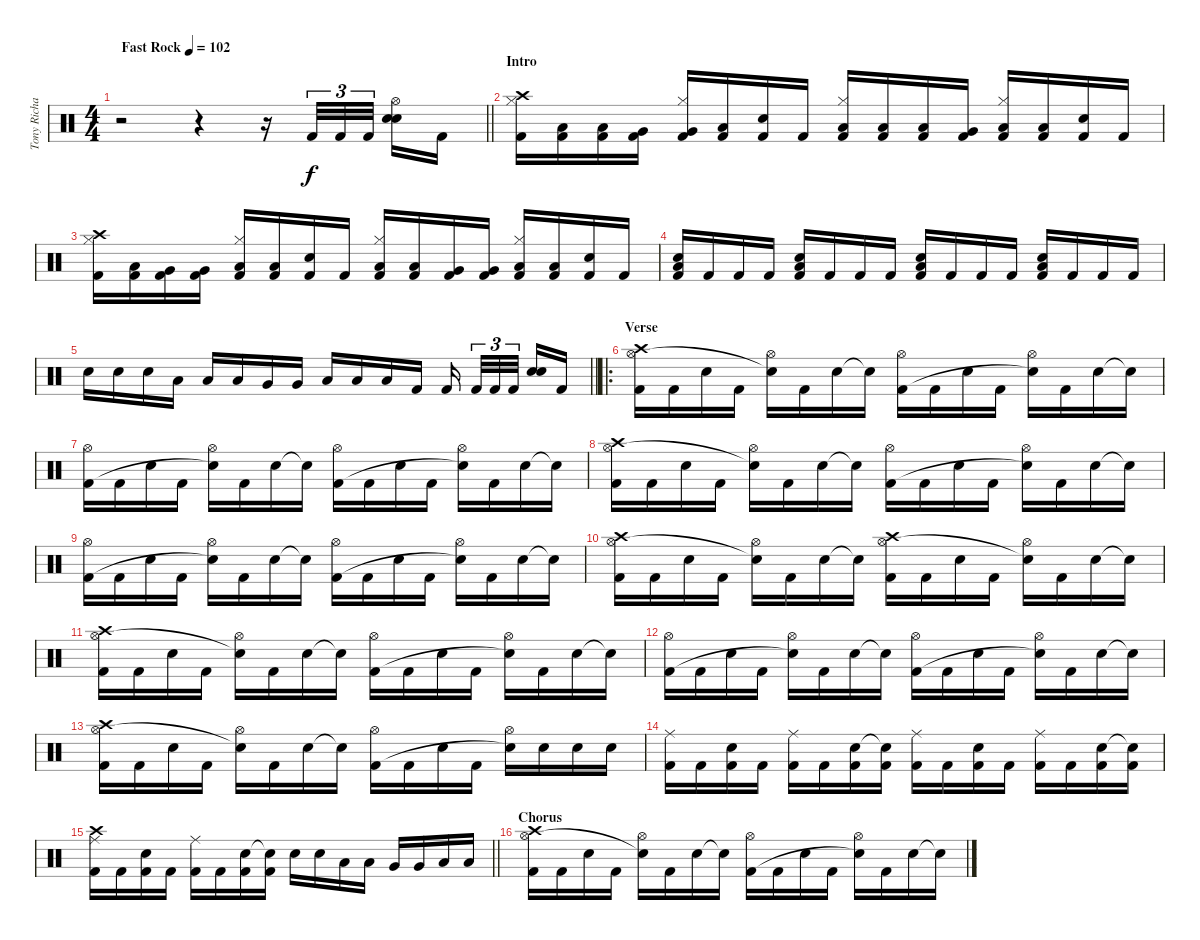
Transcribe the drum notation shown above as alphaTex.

\track ("Tony Richards (drums)" "Tony Richa") {instrument percussion}
\staff {score}
\articulation defaults
\ts (4 4)
\tempo (102 "Fast Rock")
\clef neutral
\barLineRight lightlight
\ks c
r.2{dy f} r.4 r.16 "Kick (hit) 2".32{tu (3 2)} "Kick (hit) 2".32{tu (3 2)} "Kick (hit) 2".32{tu (3 2) beam splitsecondary} ("Hi-Hat (open)" "Snare (hit) 2" "Snare (hit) 2").16 "Kick (hit) 2".16 |
\section ("" "Intro")
("Hi-Hat (closed)" "Crash high (hit)" "Kick (hit) 2").16 ("Low Tom (hit)" "Kick (hit) 2").16 ("Low Tom (hit)" "Kick (hit) 2").16 ("Very Low Tom (hit)" "Kick (hit) 2").16 ("Hi-Hat (closed)" "Very Low Tom (hit)" "Kick (hit) 2").16 ("Low Floor Tom (hit)" "Kick (hit) 2").16 ("Snare (hit) 2" "Kick (hit) 2").16 "Kick (hit) 2".16 ("Hi-Hat (closed)" "Low Tom (hit)" "Kick (hit) 2").16 ("Low Tom (hit)" "Kick (hit) 2").16 ("Low Tom (hit)" "Kick (hit) 2").16 ("Very Low Tom (hit)" "Kick (hit) 2").16 ("Hi-Hat (closed)" "Low Floor Tom (hit)" "Kick (hit) 2").16 ("Low Floor Tom (hit)" "Kick (hit) 2").16 ("Snare (hit) 2" "Kick (hit) 2").16 "Kick (hit) 2".16 |
("Hi-Hat (closed)" "Crash high (hit)" "Kick (hit) 2").16 ("Low Tom (hit)" "Kick (hit) 2").16 ("Very Low Tom (hit)" "Kick (hit) 2").16 ("Very Low Tom (hit)" "Kick (hit) 2").16 ("Hi-Hat (closed)" "Low Floor Tom (hit)" "Kick (hit) 2").16 ("Low Floor Tom (hit)" "Kick (hit) 2").16 ("Snare (hit) 2" "Kick (hit) 2").16 "Kick (hit) 2".16 ("Hi-Hat (closed)" "Low Tom (hit)" "Kick (hit) 2").16 ("Low Tom (hit)" "Kick (hit) 2").16 ("Very Low Tom (hit)" "Kick (hit) 2").16 ("Very Low Tom (hit)" "Kick (hit) 2").16 ("Hi-Hat (closed)" "Low Floor Tom (hit)" "Kick (hit) 2").16 ("Low Floor Tom (hit)" "Kick (hit) 2").16 ("Snare (hit) 2" "Kick (hit) 2").16 "Kick (hit) 2".16 |
("Low Floor Tom (hit)" "Snare (hit) 2" "Kick (hit) 2").16 "Kick (hit) 2".16 "Kick (hit) 2".16 "Kick (hit) 2".16 ("Low Floor Tom (hit)" "Snare (hit) 2" "Kick (hit) 2").16 "Kick (hit) 2".16 "Kick (hit) 2".16 "Kick (hit) 2".16 ("Low Floor Tom (hit)" "Snare (hit) 2" "Kick (hit) 2").16 "Kick (hit) 2".16 "Kick (hit) 2".16 "Kick (hit) 2".16 ("Low Floor Tom (hit)" "Snare (hit) 2" "Kick (hit) 2").16 "Kick (hit) 2".16 "Kick (hit) 2".16 "Kick (hit) 2".16 |
\barLineRight lightlight "Snare (hit) 2".16 "Snare (hit) 2".16 "Snare (hit) 2".16 "Low Tom (hit)".16 "Low Tom (hit)".16 "Low Tom (hit)".16 "Very Low Tom (hit)".16 "Very Low Tom (hit)".16 "Low Floor Tom (hit)".16 "Low Floor Tom (hit)".16 "Low Floor Tom (hit)".16 "Kick (hit) 2".16 "Kick (hit) 2".16{beam splitsecondary} "Kick (hit) 2".32{tu (3 2)} "Kick (hit) 2".32{tu (3 2)} "Kick (hit) 2".32{tu (3 2) beam splitsecondary}
("Snare (hit) 2" "Snare (hit) 2").16 "Kick (hit) 2".16 |
\ro
\section ("" "Verse")
("Crash high (hit)" "Hi-Hat (open)" "Kick (hit) 2").16 "Kick (hit) 2".16 "Snare (hit) 2".16 "Kick (hit) 2".16 ("Hi-Hat (open)" "Snare (hit)"{t}).16 "Kick (hit) 2".16 "Snare (hit) 2".16 "Snare (hit)"{t}.16 ("Hi-Hat (open)" "Kick (hit) 2").16 "Kick (hit) 2".16 "Snare (hit) 2".16 "Kick (hit) 2".16 ("Hi-Hat (open)" "Snare (hit)"{t}).16 "Kick (hit) 2".16 "Snare (hit) 2".16 "Snare (hit)"{t}.16 |
("Hi-Hat (open)" "Kick (hit) 2").16 "Kick (hit) 2".16 "Snare (hit) 2".16 "Kick (hit) 2".16 ("Hi-Hat (open)" "Snare (hit)"{t}).16 "Kick (hit) 2".16 "Snare (hit) 2".16 "Snare (hit)"{t}.16 ("Hi-Hat (open)" "Kick (hit) 2").16 "Kick (hit) 2".16 "Snare (hit) 2".16 "Kick (hit) 2".16 ("Hi-Hat (open)" "Snare (hit)"{t}).16 "Kick (hit) 2".16 "Snare (hit) 2".16 "Snare (hit)"{t}.16 |
("Crash high (hit)" "Hi-Hat (open)" "Kick (hit) 2").16 "Kick (hit) 2".16 "Snare (hit) 2".16 "Kick (hit) 2".16 ("Hi-Hat (open)" "Snare (hit)"{t}).16 "Kick (hit) 2".16 "Snare (hit) 2".16 "Snare (hit)"{t}.16 ("Hi-Hat (open)" "Kick (hit) 2").16 "Kick (hit) 2".16 "Snare (hit) 2".16 "Kick (hit) 2".16 ("Hi-Hat (open)" "Snare (hit)"{t}).16 "Kick (hit) 2".16 "Snare (hit) 2".16 "Snare (hit)"{t}.16 |
("Hi-Hat (open)" "Kick (hit) 2").16 "Kick (hit) 2".16 "Snare (hit) 2".16 "Kick (hit) 2".16 ("Hi-Hat (open)" "Snare (hit)"{t}).16 "Kick (hit) 2".16 "Snare (hit) 2".16 "Snare (hit)"{t}.16 ("Hi-Hat (open)" "Kick (hit) 2").16 "Kick (hit) 2".16 "Snare (hit) 2".16 "Kick (hit) 2".16 ("Hi-Hat (open)" "Snare (hit)"{t}).16 "Kick (hit) 2".16 "Snare (hit) 2".16 "Snare (hit)"{t}.16 |
("Crash high (hit)" "Hi-Hat (open)" "Kick (hit) 2").16 "Kick (hit) 2".16 "Snare (hit) 2".16 "Kick (hit) 2".16 ("Hi-Hat (open)" "Snare (hit)"{t}).16 "Kick (hit) 2".16 "Snare (hit) 2".16 "Snare (hit)"{t}.16 ("Crash high (hit)" "Hi-Hat (open)" "Kick (hit) 2").16 "Kick (hit) 2".16 "Snare (hit) 2".16 "Kick (hit) 2".16 ("Hi-Hat (open)" "Snare (hit)"{t}).16 "Kick (hit) 2".16 "Snare (hit) 2".16 "Snare (hit)"{t}.16 |
("Crash high (hit)" "Hi-Hat (open)" "Kick (hit) 2").16 "Kick (hit) 2".16 "Snare (hit) 2".16 "Kick (hit) 2".16 ("Hi-Hat (open)" "Snare (hit)"{t}).16 "Kick (hit) 2".16 "Snare (hit) 2".16 "Snare (hit)"{t}.16 ("Hi-Hat (open)" "Kick (hit) 2").16 "Kick (hit) 2".16 "Snare (hit) 2".16 "Kick (hit) 2".16 ("Hi-Hat (open)" "Snare (hit)"{t}).16 "Kick (hit) 2".16 "Snare (hit) 2".16 "Snare (hit)"{t}.16 |
("Hi-Hat (open)" "Kick (hit) 2").16 "Kick (hit) 2".16 "Snare (hit) 2".16 "Kick (hit) 2".16 ("Hi-Hat (open)" "Snare (hit)"{t}).16 "Kick (hit) 2".16 "Snare (hit) 2".16 "Snare (hit)"{t}.16 ("Hi-Hat (open)" "Kick (hit) 2").16 "Kick (hit) 2".16 "Snare (hit) 2".16 "Kick (hit) 2".16 ("Hi-Hat (open)" "Snare (hit)"{t}).16 "Kick (hit) 2".16 "Snare (hit) 2".16 "Snare (hit)"{t}.16 |
("Crash high (hit)" "Hi-Hat (open)" "Kick (hit) 2").16 "Kick (hit) 2".16 "Snare (hit) 2".16 "Kick (hit) 2".16 ("Hi-Hat (open)" "Snare (hit)"{t}).16 "Kick (hit) 2".16 "Snare (hit) 2".16 "Snare (hit)"{t}.16 ("Hi-Hat (open)" "Kick (hit) 2").16 "Kick (hit) 2".16 "Snare (hit) 2".16 "Kick (hit) 2".16 ("Hi-Hat (open)" "Snare (hit)"{t}).16 "Snare (hit) 2".16 "Snare (hit) 2".16 "Snare (hit) 2".16 |
("Ride (middle)" "Kick (hit) 2").16 "Kick (hit) 2".16 ("Snare (hit) 2" "Kick (hit) 2").16 "Kick (hit) 2".16 ("Ride (middle)" "Kick (hit) 2").16 "Kick (hit) 2".16 ("Snare (hit) 2" "Kick (hit) 2").16 ("Snare (hit)"{t} "Kick (hit) 2").16 ("Ride (middle)" "Kick (hit) 2").16 "Kick (hit) 2".16 ("Snare (hit) 2" "Kick (hit) 2").16 "Kick (hit) 2".16 ("Ride (middle)" "Kick (hit) 2").16 "Kick (hit) 2".16 ("Snare (hit) 2" "Kick (hit) 2").16 ("Snare (hit)"{t} "Kick (hit) 2").16 |
\barLineRight lightlight
("Crash high (hit)" "Ride (middle)" "Kick (hit) 2").16 "Kick (hit) 2".16 ("Snare (hit) 2" "Kick (hit) 2").16 "Kick (hit) 2".16 ("Ride (middle)" "Kick (hit) 2").16 "Kick (hit) 2".16 ("Snare (hit) 2" "Kick (hit) 2").16 ("Snare (hit)"{t} "Kick (hit) 2").16 "Snare (hit) 2".16 "Snare (hit) 2".16 "Low Tom (hit)".16 "Low Tom (hit)".16 "Very Low Tom (hit)".16 "Very Low Tom (hit)".16 "Low Floor Tom (hit)".16 "Low Floor Tom (hit)".16 |
\section ("" "Chorus")
("Crash high (hit)" "Hi-Hat (open)" "Kick (hit) 2").16 "Kick (hit) 2".16 "Snare (hit) 2".16 "Kick (hit) 2".16 ("Hi-Hat (open)" "Snare (hit)"{t}).16 "Kick (hit) 2".16 "Snare (hit) 2".16 "Snare (hit)"{t}.16 ("Hi-Hat (open)" "Kick (hit) 2").16 "Kick (hit) 2".16 "Snare (hit) 2".16 "Kick (hit) 2".16 ("Hi-Hat (open)" "Snare (hit)"{t}).16 "Kick (hit) 2".16 "Snare (hit) 2".16 "Snare (hit)"{t}.16
